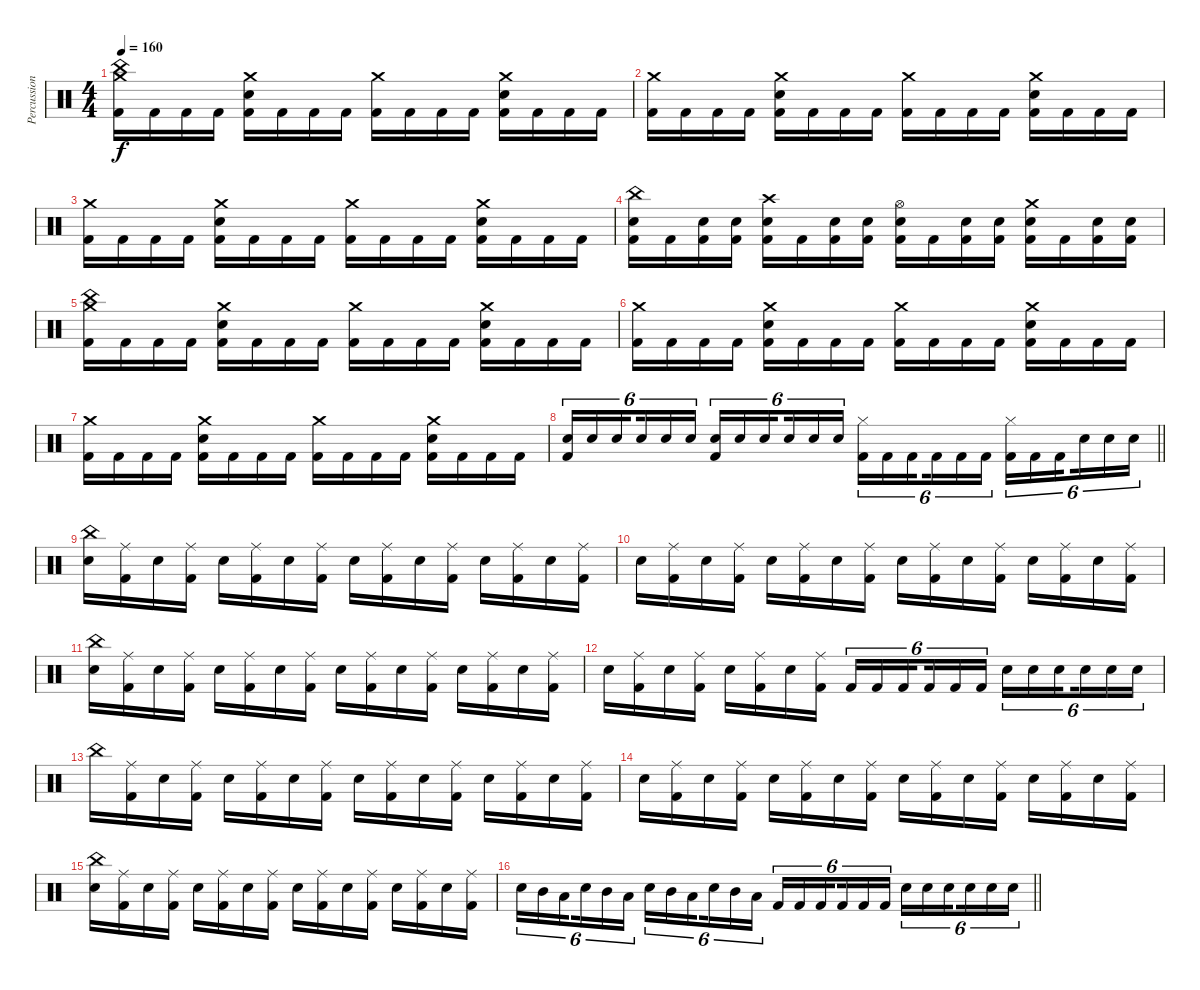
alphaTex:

\track ("Percussions" "Percussion") {instrument percussion}
\staff {score}
\articulation defaults
\ts (4 4)
\tempo 160
\clef neutral
\ks c
("Crash medium (hit)" "China (hit)" "Kick (hit) 2").16{dy f} "Kick (hit) 2".16 "Kick (hit) 2".16 "Kick (hit) 2".16 ("Crash medium (hit)" "Electric Snare (hit)" "Kick (hit) 2").16 "Kick (hit) 2".16 "Kick (hit) 2".16 "Kick (hit) 2".16 ("Crash medium (hit)" "Kick (hit) 2").16 "Kick (hit) 2".16 "Kick (hit) 2".16 "Kick (hit) 2".16 ("Crash medium (hit)" "Electric Snare (hit)" "Kick (hit) 2").16 "Kick (hit) 2".16 "Kick (hit) 2".16 "Kick (hit) 2".16 |
("Crash medium (hit)" "Kick (hit) 2").16 "Kick (hit) 2".16 "Kick (hit) 2".16 "Kick (hit) 2".16 ("Crash medium (hit)" "Electric Snare (hit)" "Kick (hit) 2").16 "Kick (hit) 2".16 "Kick (hit) 2".16 "Kick (hit) 2".16 ("Crash medium (hit)" "Kick (hit) 2").16 "Kick (hit) 2".16 "Kick (hit) 2".16 "Kick (hit) 2".16 ("Crash medium (hit)" "Electric Snare (hit)" "Kick (hit) 2").16 "Kick (hit) 2".16 "Kick (hit) 2".16 "Kick (hit) 2".16 |
("Crash medium (hit)" "Kick (hit) 2").16 "Kick (hit) 2".16 "Kick (hit) 2".16 "Kick (hit) 2".16 ("Crash medium (hit)" "Electric Snare (hit)" "Kick (hit) 2").16 "Kick (hit) 2".16 "Kick (hit) 2".16 "Kick (hit) 2".16 ("Crash medium (hit)" "Kick (hit) 2").16 "Kick (hit) 2".16 "Kick (hit) 2".16 "Kick (hit) 2".16 ("Crash medium (hit)" "Electric Snare (hit)" "Kick (hit) 2").16 "Kick (hit) 2".16 "Kick (hit) 2".16 "Kick (hit) 2".16 |
("China (hit)" "Electric Snare (hit)" "Kick (hit) 2").16 "Kick (hit) 2".16 ("Electric Snare (hit)" "Kick (hit) 2").16 ("Electric Snare (hit)" "Kick (hit) 2").16 ("Crash high (hit)" "Electric Snare (hit)" "Kick (hit) 2").16 "Kick (hit) 2".16 ("Electric Snare (hit)" "Kick (hit) 2").16 ("Electric Snare (hit)" "Kick (hit) 2").16 ("Hi-Hat (open)" "Electric Snare (hit)" "Kick (hit) 2").16 "Kick (hit) 2".16 ("Electric Snare (hit)" "Kick (hit) 2").16 ("Electric Snare (hit)" "Kick (hit) 2").16 ("Crash medium (hit)" "Electric Snare (hit)" "Kick (hit) 2").16 "Kick (hit) 2".16 ("Electric Snare (hit)" "Kick (hit) 2").16 ("Electric Snare (hit)" "Kick (hit) 2").16 |
("Crash medium (hit)" "China (hit)" "Kick (hit) 2").16 "Kick (hit) 2".16 "Kick (hit) 2".16 "Kick (hit) 2".16 ("Crash medium (hit)" "Electric Snare (hit)" "Kick (hit) 2").16 "Kick (hit) 2".16 "Kick (hit) 2".16 "Kick (hit) 2".16 ("Crash medium (hit)" "Kick (hit) 2").16 "Kick (hit) 2".16 "Kick (hit) 2".16 "Kick (hit) 2".16 ("Crash medium (hit)" "Electric Snare (hit)" "Kick (hit) 2").16 "Kick (hit) 2".16 "Kick (hit) 2".16 "Kick (hit) 2".16 |
("Crash medium (hit)" "Kick (hit) 2").16 "Kick (hit) 2".16 "Kick (hit) 2".16 "Kick (hit) 2".16 ("Crash medium (hit)" "Electric Snare (hit)" "Kick (hit) 2").16 "Kick (hit) 2".16 "Kick (hit) 2".16 "Kick (hit) 2".16 ("Crash medium (hit)" "Kick (hit) 2").16 "Kick (hit) 2".16 "Kick (hit) 2".16 "Kick (hit) 2".16 ("Crash medium (hit)" "Electric Snare (hit)" "Kick (hit) 2").16 "Kick (hit) 2".16 "Kick (hit) 2".16 "Kick (hit) 2".16 |
("Crash medium (hit)" "Kick (hit) 2").16 "Kick (hit) 2".16 "Kick (hit) 2".16 "Kick (hit) 2".16 ("Crash medium (hit)" "Electric Snare (hit)" "Kick (hit) 2").16 "Kick (hit) 2".16 "Kick (hit) 2".16 "Kick (hit) 2".16 ("Crash medium (hit)" "Kick (hit) 2").16 "Kick (hit) 2".16 "Kick (hit) 2".16 "Kick (hit) 2".16 ("Crash medium (hit)" "Electric Snare (hit)" "Kick (hit) 2").16 "Kick (hit) 2".16 "Kick (hit) 2".16 "Kick (hit) 2".16 |
\barLineRight lightlight
("Electric Snare (hit)" "Kick (hit) 2").16{tu (6 4)} "Electric Snare (hit)".16{tu (6 4)} "Electric Snare (hit)".16{tu (6 4) beam splitsecondary} "Electric Snare (hit)".16{tu (6 4)} "Electric Snare (hit)".16{tu (6 4)} "Electric Snare (hit)".16{tu (6 4)} ("Electric Snare (hit)" "Kick (hit) 2").16{tu (6 4)} "Electric Snare (hit)".16{tu (6 4)} "Electric Snare (hit)".16{tu (6 4) beam splitsecondary} "Electric Snare (hit)".16{tu (6 4)} "Electric Snare (hit)".16{tu (6 4)} "Electric Snare (hit)".16{tu (6 4)} ("Hi-Hat (closed)" "Kick (hit) 2").16{tu (6 4)} "Kick (hit) 2".16{tu (6 4)} "Kick (hit) 2".16{tu (6 4) beam splitsecondary} "Kick (hit) 2".16{tu (6 4)} "Kick (hit) 2".16{tu (6 4)} "Kick (hit) 2".16{tu (6 4)} ("Hi-Hat (closed)" "Kick (hit) 2").16{tu (6 4)} "Kick (hit) 2".16{tu (6 4)} "Kick (hit) 2".16{tu (6 4) beam splitsecondary} "Electric Snare (hit)".16{tu (6 4)} "Electric Snare (hit)".16{tu (6 4)} "Electric Snare (hit)".16{tu (6 4)} |
("China (hit)" "Electric Snare (hit)").16 ("Ride (middle)" "Kick (hit) 2").16 "Electric Snare (hit)".16 ("Ride (middle)" "Kick (hit) 2").16 "Electric Snare (hit)".16 ("Ride (middle)" "Kick (hit) 2").16 "Electric Snare (hit)".16 ("Ride (middle)" "Kick (hit) 2").16 "Electric Snare (hit)".16 ("Ride (middle)" "Kick (hit) 2").16 "Electric Snare (hit)".16 ("Ride (middle)" "Kick (hit) 2").16 "Electric Snare (hit)".16 ("Ride (middle)" "Kick (hit) 2").16 "Electric Snare (hit)".16 ("Ride (middle)" "Kick (hit) 2").16 |
"Electric Snare (hit)".16 ("Ride (middle)" "Kick (hit) 2").16 "Electric Snare (hit)".16 ("Ride (middle)" "Kick (hit) 2").16 "Electric Snare (hit)".16 ("Ride (middle)" "Kick (hit) 2").16 "Electric Snare (hit)".16 ("Ride (middle)" "Kick (hit) 2").16 "Electric Snare (hit)".16 ("Ride (middle)" "Kick (hit) 2").16 "Electric Snare (hit)".16 ("Ride (middle)" "Kick (hit) 2").16 "Electric Snare (hit)".16 ("Ride (middle)" "Kick (hit) 2").16 "Electric Snare (hit)".16 ("Ride (middle)" "Kick (hit) 2").16 |
("China (hit)" "Electric Snare (hit)").16 ("Ride (middle)" "Kick (hit) 2").16 "Electric Snare (hit)".16 ("Ride (middle)" "Kick (hit) 2").16 "Electric Snare (hit)".16 ("Ride (middle)" "Kick (hit) 2").16 "Electric Snare (hit)".16 ("Ride (middle)" "Kick (hit) 2").16 "Electric Snare (hit)".16 ("Ride (middle)" "Kick (hit) 2").16 "Electric Snare (hit)".16 ("Ride (middle)" "Kick (hit) 2").16 "Electric Snare (hit)".16 ("Ride (middle)" "Kick (hit) 2").16 "Electric Snare (hit)".16 ("Ride (middle)" "Kick (hit) 2").16 |
"Electric Snare (hit)".16 ("Ride (middle)" "Kick (hit) 2").16 "Electric Snare (hit)".16 ("Ride (middle)" "Kick (hit) 2").16 "Electric Snare (hit)".16 ("Ride (middle)" "Kick (hit) 2").16 "Electric Snare (hit)".16 ("Ride (middle)" "Kick (hit) 2").16 "Kick (hit) 2".16{tu (6 4)} "Kick (hit) 2".16{tu (6 4)} "Kick (hit) 2".16{tu (6 4) beam splitsecondary} "Kick (hit) 2".16{tu (6 4)} "Kick (hit) 2".16{tu (6 4)} "Kick (hit) 2".16{tu (6 4)} "Electric Snare (hit)".16{tu (6 4)} "Electric Snare (hit)".16{tu (6 4)} "Electric Snare (hit)".16{tu (6 4) beam splitsecondary} "Electric Snare (hit)".16{tu (6 4)} "Electric Snare (hit)".16{tu (6 4)} "Electric Snare (hit)".16{tu (6 4)} |
"China (hit)".16 ("Ride (middle)" "Kick (hit) 2").16 "Electric Snare (hit)".16 ("Ride (middle)" "Kick (hit) 2").16 "Electric Snare (hit)".16 ("Ride (middle)" "Kick (hit) 2").16 "Electric Snare (hit)".16 ("Ride (middle)" "Kick (hit) 2").16 "Electric Snare (hit)".16 ("Ride (middle)" "Kick (hit) 2").16 "Electric Snare (hit)".16 ("Ride (middle)" "Kick (hit) 2").16 "Electric Snare (hit)".16 ("Ride (middle)" "Kick (hit) 2").16 "Electric Snare (hit)".16 ("Ride (middle)" "Kick (hit) 2").16 |
"Electric Snare (hit)".16 ("Ride (middle)" "Kick (hit) 2").16 "Electric Snare (hit)".16 ("Ride (middle)" "Kick (hit) 2").16 "Electric Snare (hit)".16 ("Ride (middle)" "Kick (hit) 2").16 "Electric Snare (hit)".16 ("Ride (middle)" "Kick (hit) 2").16 "Electric Snare (hit)".16 ("Ride (middle)" "Kick (hit) 2").16 "Electric Snare (hit)".16 ("Ride (middle)" "Kick (hit) 2").16 "Electric Snare (hit)".16 ("Ride (middle)" "Kick (hit) 2").16 "Electric Snare (hit)".16 ("Ride (middle)" "Kick (hit) 2").16 |
("China (hit)" "Electric Snare (hit)").16 ("Ride (middle)" "Kick (hit) 2").16 "Electric Snare (hit)".16 ("Ride (middle)" "Kick (hit) 2").16 "Electric Snare (hit)".16 ("Ride (middle)" "Kick (hit) 2").16 "Electric Snare (hit)".16 ("Ride (middle)" "Kick (hit) 2").16 "Electric Snare (hit)".16 ("Ride (middle)" "Kick (hit) 2").16 "Electric Snare (hit)".16 ("Ride (middle)" "Kick (hit) 2").16 "Electric Snare (hit)".16 ("Ride (middle)" "Kick (hit) 2").16 "Electric Snare (hit)".16 ("Ride (middle)" "Kick (hit) 2").16 |
\barLineRight lightlight "Electric Snare (hit)".16{tu (6 4)} "Mid Tom (hit)".16{tu (6 4)} "Low Tom (hit)".16{tu (6 4) beam splitsecondary} "Electric Snare (hit)".16{tu (6 4)} "Mid Tom (hit)".16{tu (6 4)} "Low Tom (hit)".16{tu (6 4)} "Electric Snare (hit)".16{tu (6 4)} "Mid Tom (hit)".16{tu (6 4)} "Low Tom (hit)".16{tu (6 4) beam splitsecondary} "Electric Snare (hit)".16{tu (6 4)} "Mid Tom (hit)".16{tu (6 4)} "Low Tom (hit)".16{tu (6 4)} "Kick (hit) 2".16{tu (6 4)} "Kick (hit) 2".16{tu (6 4)} "Kick (hit) 2".16{tu (6 4) beam splitsecondary} "Kick (hit) 2".16{tu (6 4)} "Kick (hit) 2".16{tu (6 4)} "Kick (hit) 2".16{tu (6 4)} "Electric Snare (hit)".16{tu (6 4)} "Electric Snare (hit)".16{tu (6 4)} "Electric Snare (hit)".16{tu (6 4) beam splitsecondary} "Electric Snare (hit)".16{tu (6 4)} "Electric Snare (hit)".16{tu (6 4)} "Electric Snare (hit)".16{tu (6 4)}
